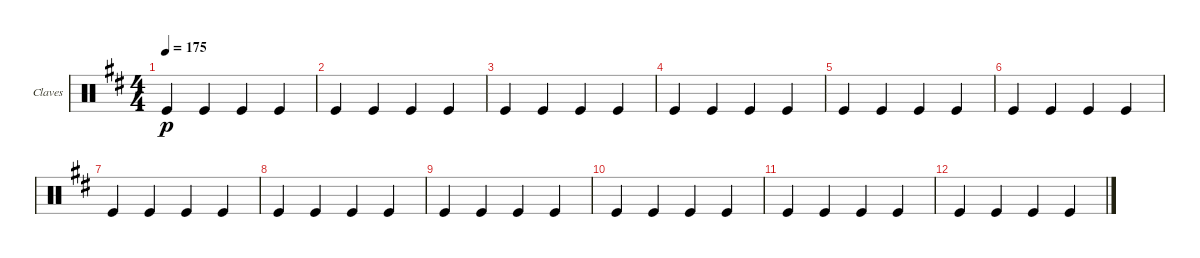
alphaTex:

\defaultSystemsLayout 4
\bracketExtendMode groupsimilarinstruments
\firstSystemTrackNameOrientation horizontal
\otherSystemsTrackNameOrientation horizontal
\track ("Claves" "Claves") {instrument percussion}
\staff {score}
\articulation defaults
\ts (4 4)
\tempo 175
\clef neutral
\ks d "Kick (hit)".4{dy p} "Kick (hit)".4 "Kick (hit)".4 "Kick (hit)".4
|
"Kick (hit)".4 "Kick (hit)".4 "Kick (hit)".4 "Kick (hit)".4 |
"Kick (hit)".4 "Kick (hit)".4 "Kick (hit)".4 "Kick (hit)".4 |
"Kick (hit)".4 "Kick (hit)".4 "Kick (hit)".4 "Kick (hit)".4 |
"Kick (hit)".4 "Kick (hit)".4 "Kick (hit)".4 "Kick (hit)".4 |
"Kick (hit)".4 "Kick (hit)".4 "Kick (hit)".4 "Kick (hit)".4 |
"Kick (hit)".4 "Kick (hit)".4 "Kick (hit)".4 "Kick (hit)".4 |
"Kick (hit)".4 "Kick (hit)".4 "Kick (hit)".4 "Kick (hit)".4 |
"Kick (hit)".4 "Kick (hit)".4 "Kick (hit)".4 "Kick (hit)".4 |
"Kick (hit)".4 "Kick (hit)".4 "Kick (hit)".4 "Kick (hit)".4 |
"Kick (hit)".4 "Kick (hit)".4 "Kick (hit)".4 "Kick (hit)".4 |
"Kick (hit)".4 "Kick (hit)".4 "Kick (hit)".4 "Kick (hit)".4
